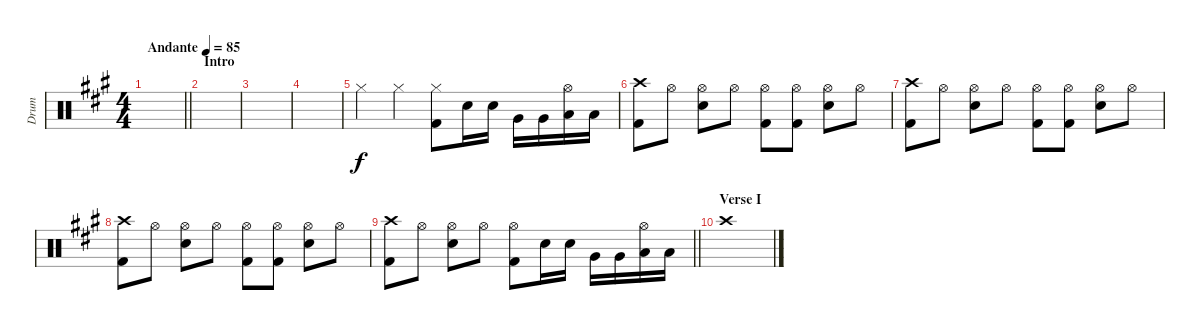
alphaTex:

\track ("Drum" "Drum") {instrument percussion}
\staff {score}
\articulation defaults
\ts (4 4)
\tempo (85 "Andante")
\clef neutral
\barLineRight lightlight
\ks a
|
\section ("" "Intro")
|
|
|
"Hi-Hat (closed)".4 "Hi-Hat (closed)".4 ("Hi-Hat (closed)" "Kick (hit) 2").8 "Snare (hit) 2".16 "Snare (hit) 2".16 "Very Low Tom (hit)".16 "Very Low Tom (hit)".16 ("Hi-Hat (open)" "Low Floor Tom (hit)").16 "Low Floor Tom (hit)".16 |
("Crash high (hit)" "Kick (hit) 2").8 "Hi-Hat (open)".8 ("Hi-Hat (open)" "Snare (hit) 2").8 "Hi-Hat (open)".8 ("Hi-Hat (open)" "Kick (hit) 2").8 ("Hi-Hat (open)" "Kick (hit) 2").8 ("Hi-Hat (open)" "Snare (hit) 2").8 "Hi-Hat (open)".8 |
("Crash high (hit)" "Kick (hit) 2").8 "Hi-Hat (open)".8 ("Hi-Hat (open)" "Snare (hit) 2").8 "Hi-Hat (open)".8 ("Hi-Hat (open)" "Kick (hit) 2").8 ("Hi-Hat (open)" "Kick (hit) 2").8 ("Hi-Hat (open)" "Snare (hit) 2").8 "Hi-Hat (open)".8 |
("Crash high (hit)" "Kick (hit) 2").8 "Hi-Hat (open)".8 ("Hi-Hat (open)" "Snare (hit) 2").8 "Hi-Hat (open)".8 ("Hi-Hat (open)" "Kick (hit) 2").8 ("Hi-Hat (open)" "Kick (hit) 2").8 ("Hi-Hat (open)" "Snare (hit) 2").8 "Hi-Hat (open)".8 |
\barLineRight lightlight
("Crash high (hit)" "Kick (hit) 2").8 "Hi-Hat (open)".8 ("Hi-Hat (open)" "Snare (hit) 2").8 "Hi-Hat (open)".8 ("Hi-Hat (open)" "Kick (hit) 2").8 "Snare (hit) 2".16 "Snare (hit) 2".16 "Very Low Tom (hit)".16 "Very Low Tom (hit)".16 ("Hi-Hat (open)" "Low Floor Tom (hit)").16 "Low Floor Tom (hit)".16 |
\section ("" "Verse I")
"Crash high (hit)".1
